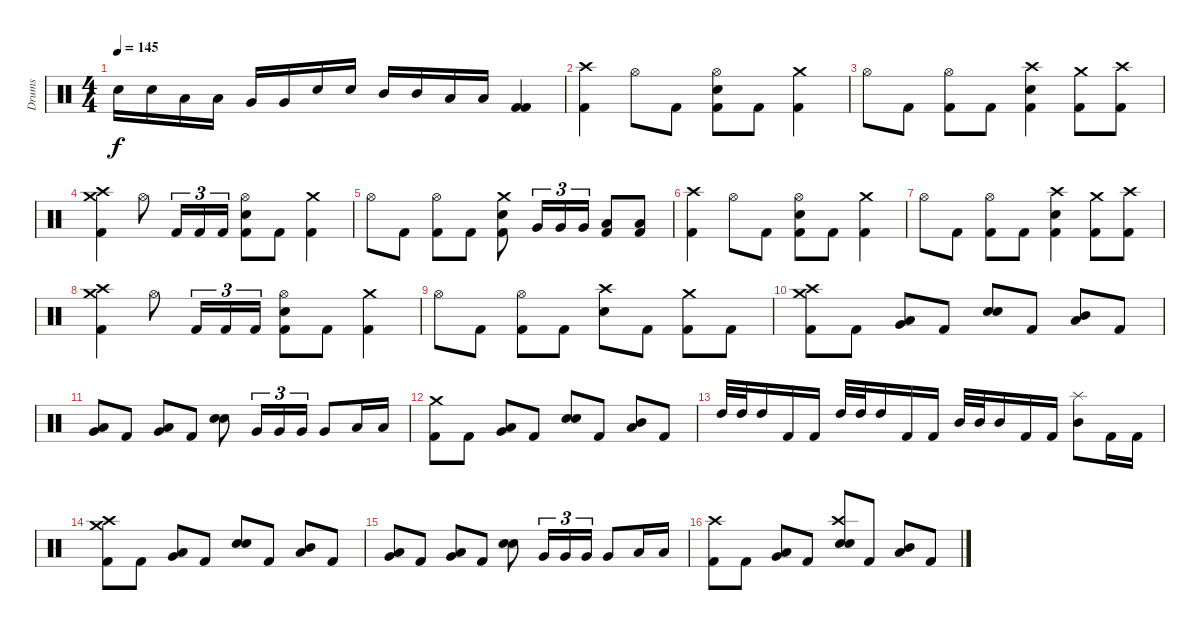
\track ("Drums" "Drums") {instrument percussion}
\staff {score}
\articulation defaults
\ts (4 4)
\tempo 145
\clef neutral
\ks c "Electric Snare (hit)".16{dy f} "Electric Snare (hit)".16 "Low Tom (hit)".16 "Low Tom (hit)".16 "Very Low Tom (hit)".16 "Very Low Tom (hit)".16 "Electric Snare (hit)".16 "Electric Snare (hit)".16 "Mid Tom (hit)".16 "Mid Tom (hit)".16 "Low Tom (hit)".16 "Low Tom (hit)".16
("Kick (hit) 2" "Kick (hit) 2").4 |
("Crash high (hit)" "Kick (hit) 2").4 "Hi-Hat (open)".8 "Kick (hit) 2".8 ("Hi-Hat (open)" "Electric Snare (hit)" "Kick (hit) 2").8 "Kick (hit) 2".8 ("Crash medium (hit)" "Kick (hit) 2").4 |
"Hi-Hat (open)".8 "Kick (hit) 2".8 ("Hi-Hat (open)" "Kick (hit) 2").8 "Kick (hit) 2".8 ("Crash high (hit)" "Electric Snare (hit)" "Kick (hit) 2").4 ("Crash medium (hit)" "Kick (hit) 2").8 ("Crash high (hit)" "Kick (hit) 2").8 |
("Crash high (hit)" "Crash medium (hit)" "Kick (hit) 2").4 "Hi-Hat (open)".8 "Kick (hit) 2".16{tu (3 2)} "Kick (hit) 2".16{tu (3 2)} "Kick (hit) 2".16{tu (3 2)} ("Hi-Hat (open)" "Electric Snare (hit)" "Kick (hit) 2").8 "Kick (hit) 2".8 ("Crash medium (hit)" "Kick (hit) 2").4 |
"Hi-Hat (open)".8 "Kick (hit) 2".8 ("Hi-Hat (open)" "Kick (hit) 2").8 "Kick (hit) 2".8 ("Crash medium (hit)" "Electric Snare (hit)" "Kick (hit) 2").8 "Very Low Tom (hit)".16{tu (3 2)} "Very Low Tom (hit)".16{tu (3 2)} "Very Low Tom (hit)".16{tu (3 2)} ("Low Floor Tom (hit)" "Kick (hit) 2").8 ("Low Floor Tom (hit)" "Kick (hit) 2").8 |
("Crash high (hit)" "Kick (hit) 2").4 "Hi-Hat (open)".8 "Kick (hit) 2".8 ("Hi-Hat (open)" "Electric Snare (hit)" "Kick (hit) 2").8 "Kick (hit) 2".8 ("Crash medium (hit)" "Kick (hit) 2").4 |
"Hi-Hat (open)".8 "Kick (hit) 2".8 ("Hi-Hat (open)" "Kick (hit) 2").8 "Kick (hit) 2".8 ("Crash high (hit)" "Electric Snare (hit)" "Kick (hit) 2").4 ("Crash medium (hit)" "Kick (hit) 2").8 ("Crash high (hit)" "Kick (hit) 2").8 |
("Crash high (hit)" "Crash medium (hit)" "Kick (hit) 2").4 "Hi-Hat (open)".8 "Kick (hit) 2".16{tu (3 2)} "Kick (hit) 2".16{tu (3 2)} "Kick (hit) 2".16{tu (3 2)} ("Hi-Hat (open)" "Electric Snare (hit)" "Kick (hit) 2").8 "Kick (hit) 2".8 ("Crash medium (hit)" "Kick (hit) 2").4 |
"Hi-Hat (open)".8 "Kick (hit) 2".8 ("Hi-Hat (open)" "Kick (hit) 2").8 "Kick (hit) 2".8 ("Crash high (hit)" "Electric Snare (hit)").8 "Kick (hit) 2".8 ("Crash medium (hit)" "Kick (hit) 2").8 "Kick (hit) 2".8 |
("Crash high (hit)" "Crash medium (hit)" "Kick (hit) 2").8 "Kick (hit) 2".8 ("Very Low Tom (hit)" "Low Floor Tom (hit)").8 "Kick (hit) 2".8 ("Electric Snare (hit)" "Snare (hit) 2").8 "Kick (hit) 2".8 ("Mid Tom (hit)" "Low Tom (hit)").8 "Kick (hit) 2".8 |
("Low Tom (hit)" "Very Low Tom (hit)").8 "Kick (hit) 2".8 ("Very Low Tom (hit)" "Low Floor Tom (hit)").8 "Kick (hit) 2".8 ("Electric Snare (hit)" "Snare (hit) 2").8 "Very Low Tom (hit)".16{tu (3 2)} "Very Low Tom (hit)".16{tu (3 2)} "Very Low Tom (hit)".16{tu (3 2)} "Very Low Tom (hit)".8 "Low Floor Tom (hit)".16 "Low Floor Tom (hit)".16 |
("Crash medium (hit)" "Kick (hit) 2").8 "Kick (hit) 2".8 ("Very Low Tom (hit)" "Low Floor Tom (hit)").8 "Kick (hit) 2".8 ("Electric Snare (hit)" "Snare (hit) 2").8 "Kick (hit) 2".8 ("Mid Tom (hit)" "Low Tom (hit)").8 "Kick (hit) 2".8 |
"High Tom (hit)".32 "High Tom (hit)".32 "High Tom (hit)".16 "Kick (hit) 2".16 "Kick (hit) 2".16 "High Tom (hit)".32 "High Tom (hit)".32 "High Tom (hit)".16 "Kick (hit) 2".16 "Kick (hit) 2".16 "Mid Tom (hit)".32 "Mid Tom (hit)".32 "Mid Tom (hit)".16 "Kick (hit) 2".16 "Kick (hit) 2".16 ("Splash (hit)" "Mid Tom (hit)").8 "Kick (hit) 2".16 "Kick (hit) 2".16 |
("Crash high (hit)" "Crash medium (hit)" "Kick (hit) 2").8 "Kick (hit) 2".8 ("Very Low Tom (hit)" "Low Floor Tom (hit)").8 "Kick (hit) 2".8 ("Electric Snare (hit)" "Snare (hit) 2").8 "Kick (hit) 2".8 ("Mid Tom (hit)" "Low Tom (hit)").8 "Kick (hit) 2".8 |
("Low Tom (hit)" "Very Low Tom (hit)").8 "Kick (hit) 2".8 ("Very Low Tom (hit)" "Low Floor Tom (hit)").8 "Kick (hit) 2".8 ("Electric Snare (hit)" "Snare (hit) 2").8 "Very Low Tom (hit)".16{tu (3 2)} "Very Low Tom (hit)".16{tu (3 2)} "Very Low Tom (hit)".16{tu (3 2)} "Very Low Tom (hit)".8 "Low Floor Tom (hit)".16 "Low Floor Tom (hit)".16 |
("Crash high (hit)" "Kick (hit) 2").8 "Kick (hit) 2".8 ("Very Low Tom (hit)" "Low Floor Tom (hit)").8 "Kick (hit) 2".8 ("Crash high (hit)" "Electric Snare (hit)" "Snare (hit) 2").8 "Kick (hit) 2".8 ("Mid Tom (hit)" "Low Tom (hit)").8 "Kick (hit) 2".8
